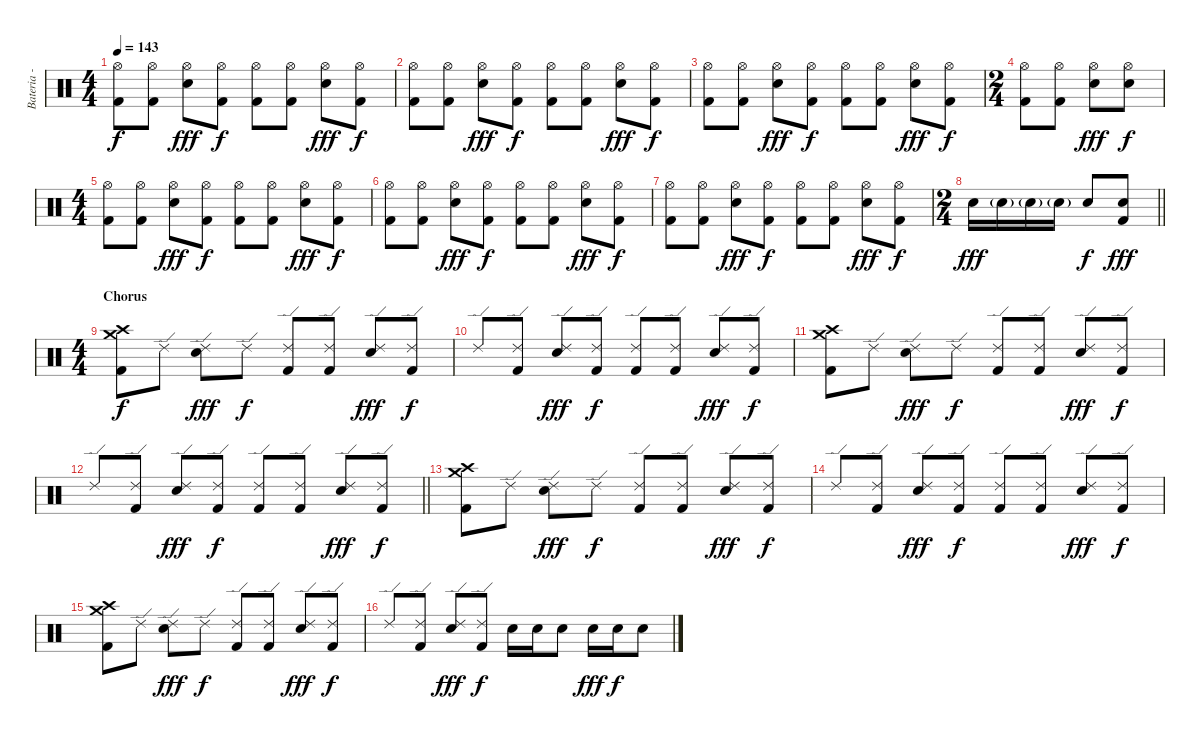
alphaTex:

\track ("Bateria - Larzon" "Bateria - ") {instrument percussion}
\staff {score}
\articulation defaults
\ts (4 4)
\tempo 143
\clef neutral
\ks c
("Kick (hit) 2" "Hi-Hat (open)").8{dy f} ("Kick (hit) 2" "Hi-Hat (open)").8 ("Electric Snare (hit)" "Hi-Hat (open)").8{dy fff} ("Kick (hit) 2" "Hi-Hat (open)").8{dy f} ("Kick (hit) 2" "Hi-Hat (open)").8 ("Kick (hit) 2" "Hi-Hat (open)").8 ("Electric Snare (hit)" "Hi-Hat (open)").8{dy fff} ("Kick (hit) 2" "Hi-Hat (open)").8{dy f} |
("Kick (hit) 2" "Hi-Hat (open)").8 ("Kick (hit) 2" "Hi-Hat (open)").8 ("Electric Snare (hit)" "Hi-Hat (open)").8{dy fff} ("Kick (hit) 2" "Hi-Hat (open)").8{dy f} ("Kick (hit) 2" "Hi-Hat (open)").8 ("Kick (hit) 2" "Hi-Hat (open)").8 ("Electric Snare (hit)" "Hi-Hat (open)").8{dy fff} ("Kick (hit) 2" "Hi-Hat (open)").8{dy f} |
("Kick (hit) 2" "Hi-Hat (open)").8 ("Kick (hit) 2" "Hi-Hat (open)").8 ("Electric Snare (hit)" "Hi-Hat (open)").8{dy fff} ("Kick (hit) 2" "Hi-Hat (open)").8{dy f} ("Kick (hit) 2" "Hi-Hat (open)").8 ("Kick (hit) 2" "Hi-Hat (open)").8 ("Electric Snare (hit)" "Hi-Hat (open)").8{dy fff} ("Kick (hit) 2" "Hi-Hat (open)").8{dy f} |
\ts (2 4)
("Kick (hit) 2" "Hi-Hat (open)").8 ("Kick (hit) 2" "Hi-Hat (open)").8 ("Electric Snare (hit)" "Hi-Hat (open)").8{dy fff} ("Electric Snare (hit)" "Hi-Hat (open)").8{dy f} |
\ts (4 4)
("Kick (hit) 2" "Hi-Hat (open)").8 ("Kick (hit) 2" "Hi-Hat (open)").8 ("Electric Snare (hit)" "Hi-Hat (open)").8{dy fff} ("Kick (hit) 2" "Hi-Hat (open)").8{dy f} ("Kick (hit) 2" "Hi-Hat (open)").8 ("Kick (hit) 2" "Hi-Hat (open)").8 ("Electric Snare (hit)" "Hi-Hat (open)").8{dy fff} ("Kick (hit) 2" "Hi-Hat (open)").8{dy f} |
("Kick (hit) 2" "Hi-Hat (open)").8 ("Kick (hit) 2" "Hi-Hat (open)").8 ("Electric Snare (hit)" "Hi-Hat (open)").8{dy fff} ("Kick (hit) 2" "Hi-Hat (open)").8{dy f} ("Kick (hit) 2" "Hi-Hat (open)").8 ("Kick (hit) 2" "Hi-Hat (open)").8 ("Electric Snare (hit)" "Hi-Hat (open)").8{dy fff} ("Kick (hit) 2" "Hi-Hat (open)").8{dy f} |
("Kick (hit) 2" "Hi-Hat (open)").8 ("Kick (hit) 2" "Hi-Hat (open)").8 ("Electric Snare (hit)" "Hi-Hat (open)").8{dy fff} ("Kick (hit) 2" "Hi-Hat (open)").8{dy f} ("Kick (hit) 2" "Hi-Hat (open)").8 ("Kick (hit) 2" "Hi-Hat (open)").8 ("Electric Snare (hit)" "Hi-Hat (open)").8{dy fff} ("Kick (hit) 2" "Hi-Hat (open)").8{dy f} |
\ts (2 4)
\barLineRight lightlight "Electric Snare (hit)".16{dy fff} "Electric Snare (hit)"{g}.16 "Electric Snare (hit)"{g}.16 "Electric Snare (hit)"{g}.16 "Electric Snare (hit)".8{dy f}
("Kick (hit) 2" "Electric Snare (hit)").8{dy fff} |
\ts (4 4)
\section ("" "Chorus")
("Kick (hit) 2" "Crash medium (hit)" "Crash high (hit)").8{dy f} "Ride (edge) 2".8 ("Electric Snare (hit)" "Ride (edge) 2").8{dy fff} "Ride (edge) 2".8{dy f} ("Kick (hit) 2" "Ride (edge) 2").8 ("Kick (hit) 2" "Ride (edge) 2").8 ("Electric Snare (hit)" "Ride (edge) 2").8{dy fff} ("Kick (hit) 2" "Ride (edge) 2").8{dy f} |
"Ride (edge) 2".8 ("Kick (hit) 2" "Ride (edge) 2").8 ("Electric Snare (hit)" "Ride (edge) 2").8{dy fff} ("Kick (hit) 2" "Ride (edge) 2").8{dy f} ("Kick (hit) 2" "Ride (edge) 2").8 ("Kick (hit) 2" "Ride (edge) 2").8 ("Electric Snare (hit)" "Ride (edge) 2").8{dy fff} ("Kick (hit) 2" "Ride (edge) 2").8{dy f} |
("Kick (hit) 2" "Crash medium (hit)" "Crash high (hit)").8 "Ride (edge) 2".8 ("Electric Snare (hit)" "Ride (edge) 2").8{dy fff} "Ride (edge) 2".8{dy f} ("Kick (hit) 2" "Ride (edge) 2").8 ("Kick (hit) 2" "Ride (edge) 2").8 ("Electric Snare (hit)" "Ride (edge) 2").8{dy fff} ("Kick (hit) 2" "Ride (edge) 2").8{dy f} |
\barLineRight lightlight "Ride (edge) 2".8
("Kick (hit) 2" "Ride (edge) 2").8 ("Electric Snare (hit)" "Ride (edge) 2").8{dy fff} ("Kick (hit) 2" "Ride (edge) 2").8{dy f} ("Kick (hit) 2" "Ride (edge) 2").8 ("Kick (hit) 2" "Ride (edge) 2").8 ("Electric Snare (hit)" "Ride (edge) 2").8{dy fff} ("Kick (hit) 2" "Ride (edge) 2").8{dy f} |
("Kick (hit) 2" "Crash medium (hit)" "Crash high (hit)").8 "Ride (edge) 2".8 ("Electric Snare (hit)" "Ride (edge) 2").8{dy fff} "Ride (edge) 2".8{dy f} ("Kick (hit) 2" "Ride (edge) 2").8 ("Kick (hit) 2" "Ride (edge) 2").8 ("Electric Snare (hit)" "Ride (edge) 2").8{dy fff} ("Kick (hit) 2" "Ride (edge) 2").8{dy f} |
"Ride (edge) 2".8 ("Kick (hit) 2" "Ride (edge) 2").8 ("Electric Snare (hit)" "Ride (edge) 2").8{dy fff} ("Kick (hit) 2" "Ride (edge) 2").8{dy f} ("Kick (hit) 2" "Ride (edge) 2").8 ("Kick (hit) 2" "Ride (edge) 2").8 ("Electric Snare (hit)" "Ride (edge) 2").8{dy fff} ("Kick (hit) 2" "Ride (edge) 2").8{dy f} |
("Kick (hit) 2" "Crash medium (hit)" "Crash high (hit)").8 "Ride (edge) 2".8 ("Electric Snare (hit)" "Ride (edge) 2").8{dy fff} "Ride (edge) 2".8{dy f} ("Kick (hit) 2" "Ride (edge) 2").8 ("Kick (hit) 2" "Ride (edge) 2").8 ("Electric Snare (hit)" "Ride (edge) 2").8{dy fff} ("Kick (hit) 2" "Ride (edge) 2").8{dy f} |
"Ride (edge) 2".8 ("Kick (hit) 2" "Ride (edge) 2").8 ("Electric Snare (hit)" "Ride (edge) 2").8{dy fff} ("Kick (hit) 2" "Ride (edge) 2").8{dy f} "Electric Snare (hit)".16 "Electric Snare (hit)".16 "Electric Snare (hit)".8 "Electric Snare (hit)".16{dy fff} "Electric Snare (hit)".16{dy f} "Electric Snare (hit)".8
